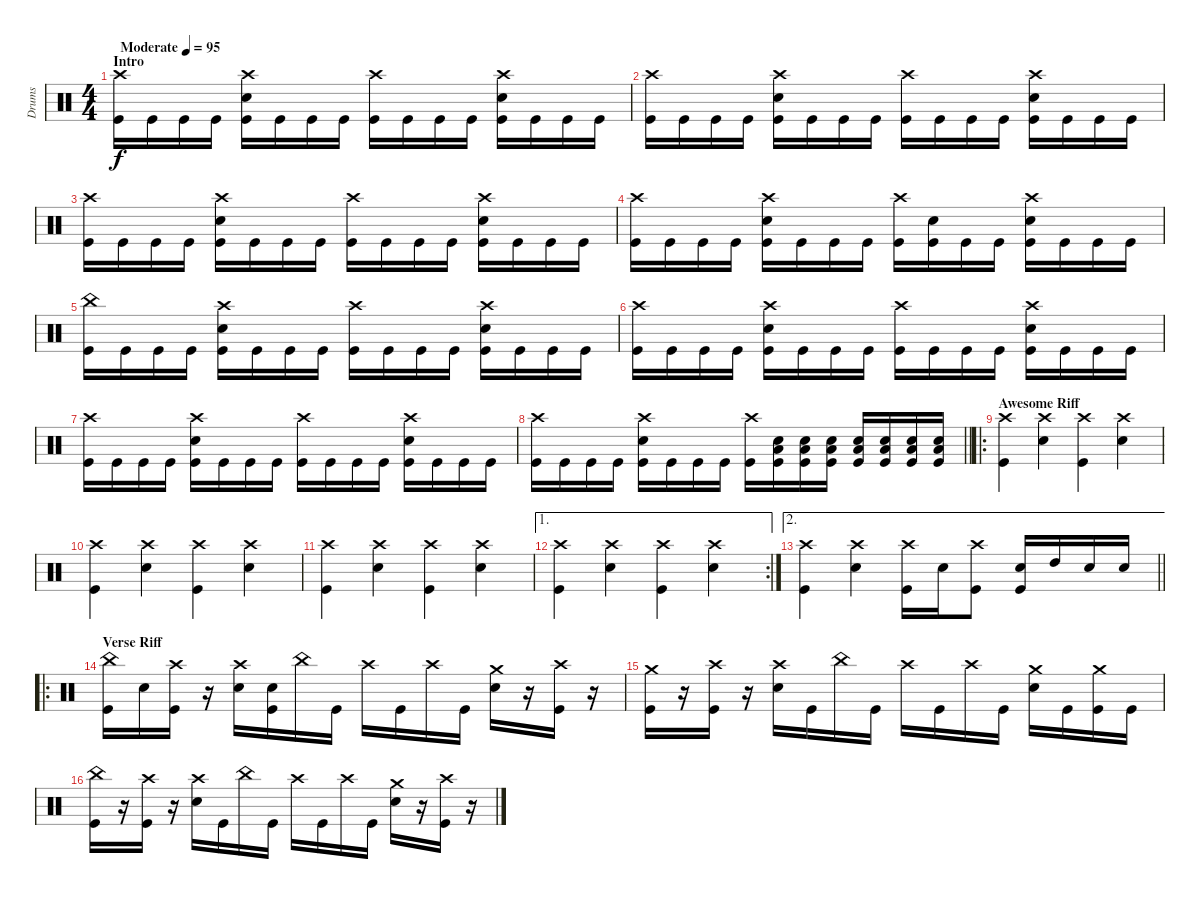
\track ("Drums" "Drums") {instrument percussion}
\staff {score}
\articulation defaults
\ts (4 4)
\section ("" "Intro")
\tempo (95 "Moderate")
\clef neutral
\ks c
("Crash high (hit)" "Kick (hit)").16{dy f} "Kick (hit)".16 "Kick (hit)".16 "Kick (hit)".16 ("Crash high (hit)" "Snare (hit) 2" "Kick (hit)").16 "Kick (hit)".16 "Kick (hit)".16 "Kick (hit)".16 ("Crash high (hit)" "Kick (hit)").16 "Kick (hit)".16 "Kick (hit)".16 "Kick (hit)".16 ("Crash high (hit)" "Snare (hit) 2" "Kick (hit)").16 "Kick (hit)".16 "Kick (hit)".16 "Kick (hit)".16 |
("Crash high (hit)" "Kick (hit)").16 "Kick (hit)".16 "Kick (hit)".16 "Kick (hit)".16 ("Crash high (hit)" "Snare (hit) 2" "Kick (hit)").16 "Kick (hit)".16 "Kick (hit)".16 "Kick (hit)".16 ("Crash high (hit)" "Kick (hit)").16 "Kick (hit)".16 "Kick (hit)".16 "Kick (hit)".16 ("Crash high (hit)" "Snare (hit) 2" "Kick (hit)").16 "Kick (hit)".16 "Kick (hit)".16 "Kick (hit)".16 |
("Crash high (hit)" "Kick (hit)").16 "Kick (hit)".16 "Kick (hit)".16 "Kick (hit)".16 ("Crash high (hit)" "Snare (hit) 2" "Kick (hit)").16 "Kick (hit)".16 "Kick (hit)".16 "Kick (hit)".16 ("Crash high (hit)" "Kick (hit)").16 "Kick (hit)".16 "Kick (hit)".16 "Kick (hit)".16 ("Crash high (hit)" "Snare (hit) 2" "Kick (hit)").16 "Kick (hit)".16 "Kick (hit)".16 "Kick (hit)".16 |
("Crash high (hit)" "Kick (hit)").16 "Kick (hit)".16 "Kick (hit)".16 "Kick (hit)".16 ("Crash high (hit)" "Snare (hit) 2" "Kick (hit)").16 "Kick (hit)".16 "Kick (hit)".16 "Kick (hit)".16 ("Crash high (hit)" "Kick (hit)").16 ("Snare (hit) 2" "Kick (hit)").16 "Kick (hit)".16 "Kick (hit)".16 ("Crash high (hit)" "Snare (hit) 2" "Kick (hit)").16 "Kick (hit)".16 "Kick (hit)".16 "Kick (hit)".16 |
("China (hit)" "Kick (hit)").16 "Kick (hit)".16 "Kick (hit)".16 "Kick (hit)".16 ("Crash high (hit)" "Snare (hit) 2" "Kick (hit)").16 "Kick (hit)".16 "Kick (hit)".16 "Kick (hit)".16 ("Crash high (hit)" "Kick (hit)").16 "Kick (hit)".16 "Kick (hit)".16 "Kick (hit)".16 ("Crash high (hit)" "Snare (hit) 2" "Kick (hit)").16 "Kick (hit)".16 "Kick (hit)".16 "Kick (hit)".16 |
("Crash high (hit)" "Kick (hit)").16 "Kick (hit)".16 "Kick (hit)".16 "Kick (hit)".16 ("Crash high (hit)" "Snare (hit) 2" "Kick (hit)").16 "Kick (hit)".16 "Kick (hit)".16 "Kick (hit)".16 ("Crash high (hit)" "Kick (hit)").16 "Kick (hit)".16 "Kick (hit)".16 "Kick (hit)".16 ("Crash high (hit)" "Snare (hit) 2" "Kick (hit)").16 "Kick (hit)".16 "Kick (hit)".16 "Kick (hit)".16 |
("Crash high (hit)" "Kick (hit)").16 "Kick (hit)".16 "Kick (hit)".16 "Kick (hit)".16 ("Crash high (hit)" "Snare (hit) 2" "Kick (hit)").16 "Kick (hit)".16 "Kick (hit)".16 "Kick (hit)".16 ("Crash high (hit)" "Kick (hit)").16 "Kick (hit)".16 "Kick (hit)".16 "Kick (hit)".16 ("Crash high (hit)" "Snare (hit) 2" "Kick (hit)").16 "Kick (hit)".16 "Kick (hit)".16 "Kick (hit)".16 |
\barLineRight lightlight
("Crash high (hit)" "Kick (hit)").16 "Kick (hit)".16 "Kick (hit)".16 "Kick (hit)".16 ("Crash high (hit)" "Snare (hit) 2" "Kick (hit)").16 "Kick (hit)".16 "Kick (hit)".16 "Kick (hit)".16 ("Crash high (hit)" "Kick (hit)").16 ("Low Tom (hit)" "Snare (hit) 2" "Kick (hit)").16 ("Low Tom (hit)" "Snare (hit) 2" "Kick (hit)").16 ("Low Tom (hit)" "Snare (hit) 2" "Kick (hit)").16 ("Low Tom (hit)" "Snare (hit) 2" "Kick (hit)").16 ("Low Tom (hit)" "Snare (hit) 2" "Kick (hit)").16 ("Low Tom (hit)" "Snare (hit) 2" "Kick (hit)").16 ("Low Tom (hit)" "Snare (hit) 2" "Kick (hit)").16 |
\ro
\section ("" "Awesome Riff")
("Crash high (hit)" "Kick (hit)").4 ("Crash high (hit)" "Snare (hit) 2").4 ("Crash high (hit)" "Kick (hit)").4 ("Crash high (hit)" "Snare (hit) 2").4 |
("Crash high (hit)" "Kick (hit)").4 ("Crash high (hit)" "Snare (hit) 2").4 ("Crash high (hit)" "Kick (hit)").4 ("Crash high (hit)" "Snare (hit) 2").4 |
("Crash high (hit)" "Kick (hit)").4 ("Crash high (hit)" "Snare (hit) 2").4 ("Crash high (hit)" "Kick (hit)").4 ("Crash high (hit)" "Snare (hit) 2").4 |
\ae 1
\rc 2
("Crash high (hit)" "Kick (hit)").4 ("Crash high (hit)" "Snare (hit) 2").4 ("Crash high (hit)" "Kick (hit)").4 ("Crash high (hit)" "Snare (hit) 2").4 |
\ae 2
\barLineRight lightlight
("Crash high (hit)" "Kick (hit)").4 ("Crash high (hit)" "Snare (hit) 2").4 ("Crash high (hit)" "Kick (hit)").16 "Snare (hit) 2".16 ("Crash high (hit)" "Kick (hit)").8 ("Snare (hit) 2" "Kick (hit)").16 "High Tom (hit)".16 "Snare (hit) 2".16 "Snare (hit) 2".16 |
\ro
\section ("" "Verse Riff")
("China (hit)" "Kick (hit)").16 "Snare (hit) 2".16 ("Crash high (hit)" "Kick (hit)").16 r.16 ("Crash high (hit)" "Snare (hit) 2").16 ("Snare (hit) 2" "Kick (hit)").16 "China (hit)".16 "Kick (hit)".16 "Crash high (hit)".16 "Kick (hit)".16 "Crash high (hit)".16 "Kick (hit)".16 ("Crash medium (hit)" "Snare (hit) 2").16 r.16 ("Crash high (hit)" "Kick (hit)").16 r.16 |
("Crash medium (hit)" "Kick (hit)").16 r.16 ("Crash high (hit)" "Kick (hit)").16 r.16 ("Crash high (hit)" "Snare (hit) 2").16 "Kick (hit)".16 "China (hit)".16 "Kick (hit)".16 "Crash high (hit)".16 "Kick (hit)".16 "Crash high (hit)".16 "Kick (hit)".16 ("Crash medium (hit)" "Snare (hit) 2").16 "Kick (hit)".16 ("Crash medium (hit)" "Kick (hit)").16 "Kick (hit)".16 |
("China (hit)" "Kick (hit)").16 r.16 ("Crash high (hit)" "Kick (hit)").16 r.16 ("Crash high (hit)" "Snare (hit) 2").16 "Kick (hit)".16 "China (hit)".16 "Kick (hit)".16 "Crash high (hit)".16 "Kick (hit)".16 "Crash high (hit)".16 "Kick (hit)".16 ("Crash medium (hit)" "Snare (hit) 2").16 r.16 ("Crash high (hit)" "Kick (hit)").16 r.16
